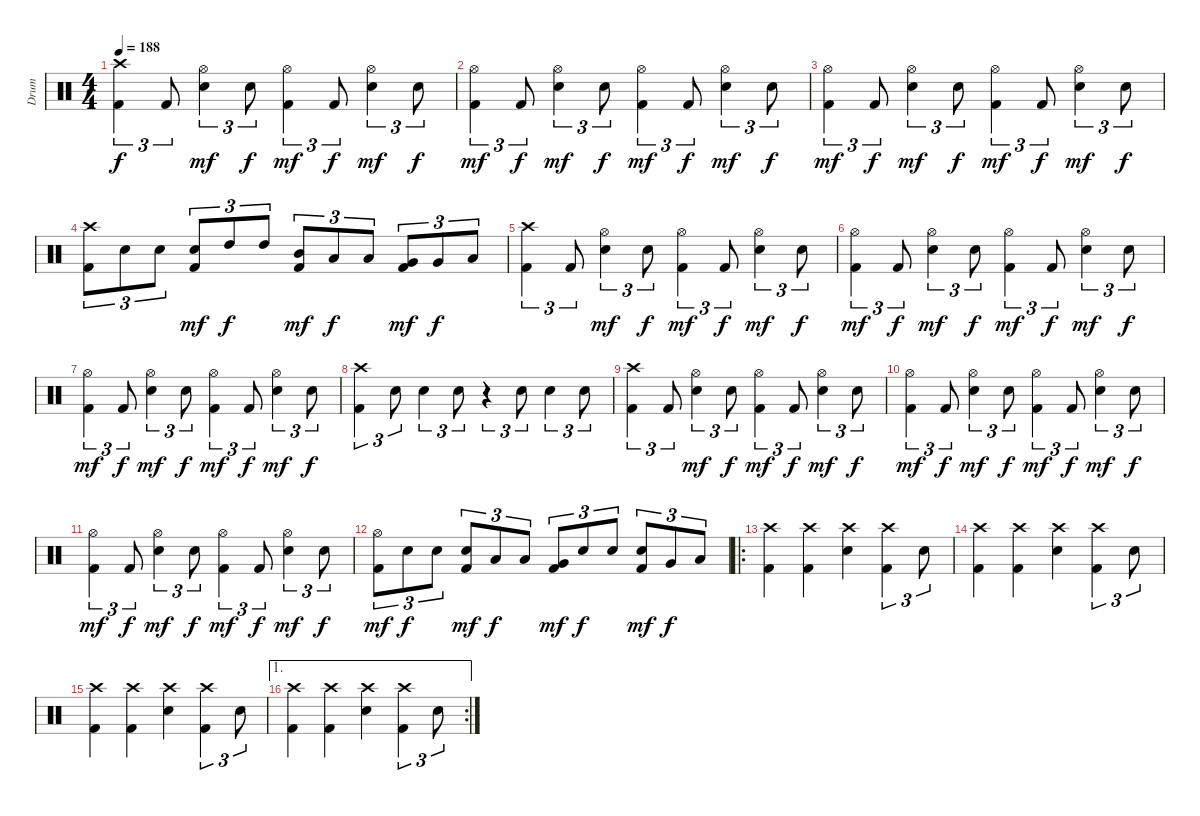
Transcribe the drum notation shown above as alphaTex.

\track ("Drum" "Drum") {instrument percussion}
\staff {score}
\articulation defaults
\ts (4 4)
\tempo 188
\clef neutral
\ks c
("Kick (hit) 2" "Crash high (hit)").4{tu (3 2) dy f} "Kick (hit) 2".8{tu (3 2)} ("Snare (hit) 2" "Hi-Hat (open)").4{tu (3 2) dy mf} "Snare (hit) 2".8{tu (3 2) dy f} ("Kick (hit) 2" "Hi-Hat (open)").4{tu (3 2) dy mf} "Kick (hit) 2".8{tu (3 2) dy f} ("Snare (hit) 2" "Hi-Hat (open)").4{tu (3 2) dy mf} "Snare (hit) 2".8{tu (3 2) dy f} |
("Kick (hit) 2" "Hi-Hat (open)").4{tu (3 2) dy mf} "Kick (hit) 2".8{tu (3 2) dy f} ("Snare (hit) 2" "Hi-Hat (open)").4{tu (3 2) dy mf} "Snare (hit) 2".8{tu (3 2) dy f} ("Kick (hit) 2" "Hi-Hat (open)").4{tu (3 2) dy mf} "Kick (hit) 2".8{tu (3 2) dy f} ("Snare (hit) 2" "Hi-Hat (open)").4{tu (3 2) dy mf} "Snare (hit) 2".8{tu (3 2) dy f} |
("Kick (hit) 2" "Hi-Hat (open)").4{tu (3 2) dy mf} "Kick (hit) 2".8{tu (3 2) dy f} ("Snare (hit) 2" "Hi-Hat (open)").4{tu (3 2) dy mf} "Snare (hit) 2".8{tu (3 2) dy f} ("Kick (hit) 2" "Hi-Hat (open)").4{tu (3 2) dy mf} "Kick (hit) 2".8{tu (3 2) dy f} ("Snare (hit) 2" "Hi-Hat (open)").4{tu (3 2) dy mf} "Snare (hit) 2".8{tu (3 2) dy f} |
("Kick (hit) 2" "Crash high (hit)").8{tu (3 2)} "Snare (hit) 2".8{tu (3 2)} "Snare (hit) 2".8{tu (3 2)} ("Snare (hit) 2" "Kick (hit) 2").8{tu (3 2) dy mf} "High Tom (hit)".8{tu (3 2) dy f} "High Tom (hit)".8{tu (3 2)} ("Mid Tom (hit)" "Kick (hit) 2").8{tu (3 2) dy mf} "Low Tom (hit)".8{tu (3 2) dy f} "Low Tom (hit)".8{tu (3 2)} ("Very Low Tom (hit)" "Kick (hit) 2").8{tu (3 2) dy mf} "Very Low Tom (hit)".8{tu (3 2) dy f} "Low Floor Tom (hit)".8{tu (3 2)} |
("Kick (hit) 2" "Crash high (hit)").4{tu (3 2)} "Kick (hit) 2".8{tu (3 2)} ("Snare (hit) 2" "Hi-Hat (open)").4{tu (3 2) dy mf} "Snare (hit) 2".8{tu (3 2) dy f} ("Kick (hit) 2" "Hi-Hat (open)").4{tu (3 2) dy mf} "Kick (hit) 2".8{tu (3 2) dy f} ("Snare (hit) 2" "Hi-Hat (open)").4{tu (3 2) dy mf} "Snare (hit) 2".8{tu (3 2) dy f} |
("Kick (hit) 2" "Hi-Hat (open)").4{tu (3 2) dy mf} "Kick (hit) 2".8{tu (3 2) dy f} ("Snare (hit) 2" "Hi-Hat (open)").4{tu (3 2) dy mf} "Snare (hit) 2".8{tu (3 2) dy f} ("Kick (hit) 2" "Hi-Hat (open)").4{tu (3 2) dy mf} "Kick (hit) 2".8{tu (3 2) dy f} ("Snare (hit) 2" "Hi-Hat (open)").4{tu (3 2) dy mf} "Snare (hit) 2".8{tu (3 2) dy f} |
("Kick (hit) 2" "Hi-Hat (open)").4{tu (3 2) dy mf} "Kick (hit) 2".8{tu (3 2) dy f} ("Snare (hit) 2" "Hi-Hat (open)").4{tu (3 2) dy mf} "Snare (hit) 2".8{tu (3 2) dy f} ("Kick (hit) 2" "Hi-Hat (open)").4{tu (3 2) dy mf} "Kick (hit) 2".8{tu (3 2) dy f} ("Snare (hit) 2" "Hi-Hat (open)").4{tu (3 2) dy mf} "Snare (hit) 2".8{tu (3 2) dy f} |
("Kick (hit) 2" "Crash high (hit)").4{tu (3 2)} "Snare (hit) 2".8{tu (3 2)} "Snare (hit) 2".4{tu (3 2)} "Snare (hit) 2".8{tu (3 2)} r.4{tu (3 2)} "Snare (hit) 2".8{tu (3 2)} "Snare (hit) 2".4{tu (3 2)} "Snare (hit) 2".8{tu (3 2)} |
("Kick (hit) 2" "Crash high (hit)").4{tu (3 2)} "Kick (hit) 2".8{tu (3 2)} ("Snare (hit) 2" "Hi-Hat (open)").4{tu (3 2) dy mf} "Snare (hit) 2".8{tu (3 2) dy f} ("Kick (hit) 2" "Hi-Hat (open)").4{tu (3 2) dy mf} "Kick (hit) 2".8{tu (3 2) dy f} ("Snare (hit) 2" "Hi-Hat (open)").4{tu (3 2) dy mf} "Snare (hit) 2".8{tu (3 2) dy f} |
("Kick (hit) 2" "Hi-Hat (open)").4{tu (3 2) dy mf} "Kick (hit) 2".8{tu (3 2) dy f} ("Snare (hit) 2" "Hi-Hat (open)").4{tu (3 2) dy mf} "Snare (hit) 2".8{tu (3 2) dy f} ("Kick (hit) 2" "Hi-Hat (open)").4{tu (3 2) dy mf} "Kick (hit) 2".8{tu (3 2) dy f} ("Snare (hit) 2" "Hi-Hat (open)").4{tu (3 2) dy mf} "Snare (hit) 2".8{tu (3 2) dy f} |
("Kick (hit) 2" "Hi-Hat (open)").4{tu (3 2) dy mf} "Kick (hit) 2".8{tu (3 2) dy f} ("Snare (hit) 2" "Hi-Hat (open)").4{tu (3 2) dy mf} "Snare (hit) 2".8{tu (3 2) dy f} ("Kick (hit) 2" "Hi-Hat (open)").4{tu (3 2) dy mf} "Kick (hit) 2".8{tu (3 2) dy f} ("Snare (hit) 2" "Hi-Hat (open)").4{tu (3 2) dy mf} "Snare (hit) 2".8{tu (3 2) dy f} |
("Kick (hit) 2" "Hi-Hat (open)").8{tu (3 2) dy mf} "Snare (hit) 2".8{tu (3 2) dy f} "Snare (hit) 2".8{tu (3 2)} ("Snare (hit) 2" "Kick (hit) 2").8{tu (3 2) dy mf} "Low Tom (hit)".8{tu (3 2) dy f} "Low Tom (hit)".8{tu (3 2)} ("Very Low Tom (hit)" "Kick (hit) 2").8{tu (3 2) dy mf} "Snare (hit) 2".8{tu (3 2) dy f} "Snare (hit) 2".8{tu (3 2)} ("Snare (hit) 2" "Kick (hit) 2").8{tu (3 2) dy mf} "Very Low Tom (hit)".8{tu (3 2) dy f} "Low Floor Tom (hit)".8{tu (3 2)} |
\ro
("Kick (hit) 2" "Crash high (hit)").4 ("Kick (hit) 2" "Crash high (hit)").4 ("Snare (hit) 2" "Crash high (hit)").4 ("Kick (hit) 2" "Crash high (hit)").4{tu (3 2)} "Snare (hit) 2".8{tu (3 2)} |
("Kick (hit) 2" "Crash high (hit)").4 ("Kick (hit) 2" "Crash high (hit)").4 ("Snare (hit) 2" "Crash high (hit)").4 ("Kick (hit) 2" "Crash high (hit)").4{tu (3 2)} "Snare (hit) 2".8{tu (3 2)} |
("Kick (hit) 2" "Crash high (hit)").4 ("Kick (hit) 2" "Crash high (hit)").4 ("Snare (hit) 2" "Crash high (hit)").4 ("Kick (hit) 2" "Crash high (hit)").4{tu (3 2)} "Snare (hit) 2".8{tu (3 2)} |
\ae 1
\rc 2
("Kick (hit) 2" "Crash high (hit)").4 ("Kick (hit) 2" "Crash high (hit)").4 ("Snare (hit) 2" "Crash high (hit)").4 ("Kick (hit) 2" "Crash high (hit)").4{tu (3 2)} "Snare (hit) 2".8{tu (3 2)}
